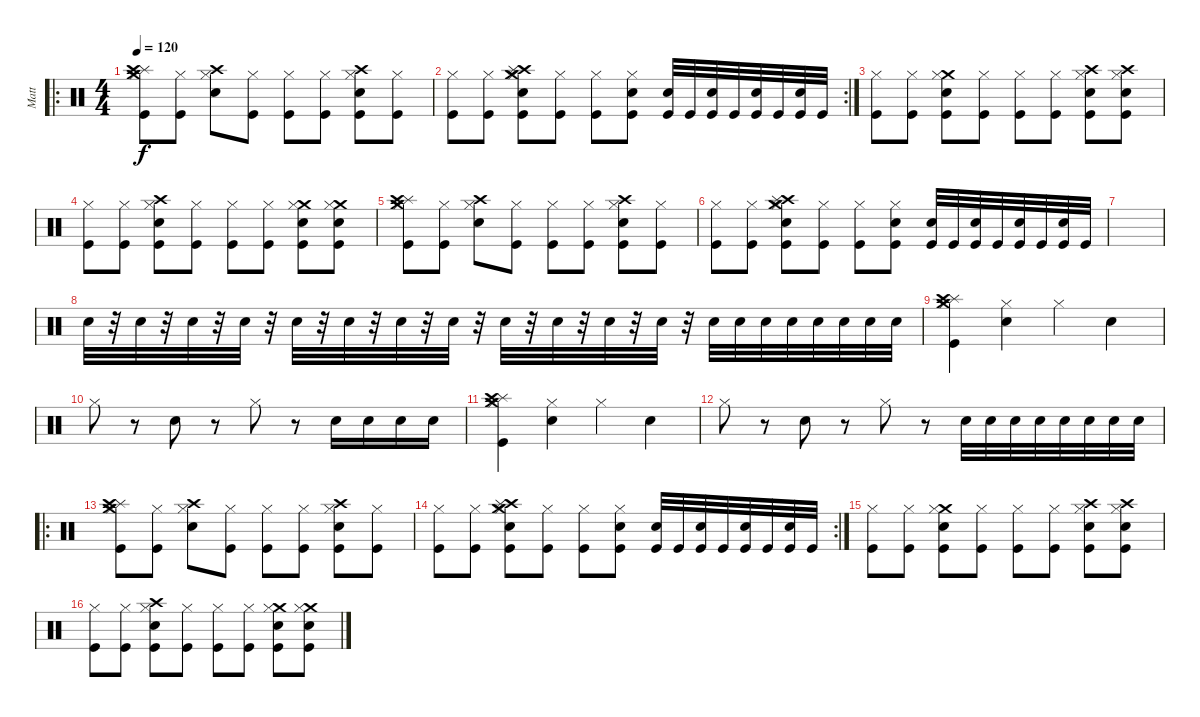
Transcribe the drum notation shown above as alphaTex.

\track ("Matt" "Matt") {instrument percussion}
\staff {score}
\articulation defaults
\ro
\ts (4 4)
\tempo 120
\clef neutral
\ks c
("Crash medium (hit)" "Splash (hit)" "Crash high (hit)" "Kick (hit)" "Hi-Hat (closed)").8{dy f} ("Hi-Hat (closed)" "Kick (hit)").8 ("Crash high (hit)" "Hi-Hat (closed)" "Electric Snare (hit)").8 ("Hi-Hat (closed)" "Kick (hit)").8 ("Hi-Hat (closed)" "Kick (hit)").8 ("Hi-Hat (closed)" "Kick (hit)").8 ("Crash high (hit)" "Electric Snare (hit)" "Hi-Hat (closed)" "Kick (hit)").8 ("Hi-Hat (closed)" "Kick (hit)").8 |
\rc 2
("Hi-Hat (closed)" "Kick (hit)").8 ("Hi-Hat (closed)" "Kick (hit)").8 ("Crash high (hit)" "Crash medium (hit)" "Hi-Hat (closed)" "Kick (hit)" "Electric Snare (hit)" "Splash (hit)").8 ("Hi-Hat (closed)" "Kick (hit)").8 ("Kick (hit)" "Hi-Hat (closed)").8 ("Electric Snare (hit)" "Hi-Hat (closed)" "Kick (hit)").8 ("Electric Snare (hit)" "Kick (hit)").32 "Kick (hit)".32 ("Electric Snare (hit)" "Kick (hit)").32 "Kick (hit)".32 ("Electric Snare (hit)" "Kick (hit)").32 "Kick (hit)".32 ("Electric Snare (hit)" "Kick (hit)").32 "Kick (hit)".32 |
("Hi-Hat (closed)" "Kick (hit)").8 ("Hi-Hat (closed)" "Kick (hit)").8 ("Crash medium (hit)" "Electric Snare (hit)" "Hi-Hat (closed)" "Kick (hit)").8 ("Hi-Hat (closed)" "Kick (hit)").8 ("Hi-Hat (closed)" "Kick (hit)").8 ("Hi-Hat (closed)" "Kick (hit)").8 ("Crash high (hit)" "Electric Snare (hit)" "Hi-Hat (closed)" "Kick (hit)").8 ("Crash high (hit)" "Electric Snare (hit)" "Hi-Hat (closed)" "Kick (hit)").8 |
("Hi-Hat (closed)" "Kick (hit)").8 ("Hi-Hat (closed)" "Kick (hit)").8 ("Crash high (hit)" "Electric Snare (hit)" "Hi-Hat (closed)" "Kick (hit)").8 ("Hi-Hat (closed)" "Kick (hit)").8 ("Hi-Hat (closed)" "Kick (hit)").8 ("Hi-Hat (closed)" "Kick (hit)").8 ("Crash medium (hit)" "Electric Snare (hit)" "Hi-Hat (closed)" "Kick (hit)").8 ("Crash medium (hit)" "Electric Snare (hit)" "Hi-Hat (closed)" "Kick (hit)").8 |
("Crash medium (hit)" "Splash (hit)" "Crash high (hit)" "Kick (hit)" "Hi-Hat (closed)").8 ("Hi-Hat (closed)" "Kick (hit)").8 ("Crash high (hit)" "Hi-Hat (closed)" "Electric Snare (hit)").8 ("Hi-Hat (closed)" "Kick (hit)").8 ("Hi-Hat (closed)" "Kick (hit)").8 ("Hi-Hat (closed)" "Kick (hit)").8 ("Crash high (hit)" "Electric Snare (hit)" "Hi-Hat (closed)" "Kick (hit)").8 ("Hi-Hat (closed)" "Kick (hit)").8 |
("Hi-Hat (closed)" "Kick (hit)").8 ("Hi-Hat (closed)" "Kick (hit)").8 ("Crash high (hit)" "Crash medium (hit)" "Hi-Hat (closed)" "Kick (hit)" "Electric Snare (hit)" "Splash (hit)").8 ("Hi-Hat (closed)" "Kick (hit)").8 ("Kick (hit)" "Hi-Hat (closed)").8 ("Electric Snare (hit)" "Hi-Hat (closed)" "Kick (hit)").8 ("Electric Snare (hit)" "Kick (hit)").32 "Kick (hit)".32 ("Electric Snare (hit)" "Kick (hit)").32 "Kick (hit)".32 ("Electric Snare (hit)" "Kick (hit)").32 "Kick (hit)".32 ("Electric Snare (hit)" "Kick (hit)").32 "Kick (hit)".32 |
|
"Electric Snare (hit)".32 r.32 "Electric Snare (hit)".32 r.32 "Electric Snare (hit)".32 r.32 "Electric Snare (hit)".32 r.32 "Electric Snare (hit)".32 r.32 "Electric Snare (hit)".32 r.32 "Electric Snare (hit)".32 r.32 "Electric Snare (hit)".32 r.32 "Electric Snare (hit)".32 r.32 "Electric Snare (hit)".32 r.32 "Electric Snare (hit)".32 r.32 "Electric Snare (hit)".32 r.32 "Electric Snare (hit)".32 "Electric Snare (hit)".32 "Electric Snare (hit)".32 "Electric Snare (hit)".32 "Electric Snare (hit)".32 "Electric Snare (hit)".32 "Electric Snare (hit)".32 "Electric Snare (hit)".32 |
("Splash (hit)" "Crash medium (hit)" "Crash high (hit)" "Kick (hit)" "Hi-Hat (closed)").4 ("Electric Snare (hit)" "Hi-Hat (closed)").4 "Hi-Hat (closed)".4 "Electric Snare (hit)".4 |
"Hi-Hat (closed)".8 r.8 "Electric Snare (hit)".8 r.8 "Hi-Hat (closed)".8 r.8 "Electric Snare (hit)".16 "Electric Snare (hit)".16 "Electric Snare (hit)".16 "Electric Snare (hit)".16 |
("Splash (hit)" "Crash medium (hit)" "Crash high (hit)" "Kick (hit)" "Hi-Hat (closed)").4 ("Electric Snare (hit)" "Hi-Hat (closed)").4 "Hi-Hat (closed)".4 "Electric Snare (hit)".4 |
"Hi-Hat (closed)".8 r.8 "Electric Snare (hit)".8 r.8 "Hi-Hat (closed)".8 r.8 "Electric Snare (hit)".32 "Electric Snare (hit)".32 "Electric Snare (hit)".32 "Electric Snare (hit)".32 "Electric Snare (hit)".32 "Electric Snare (hit)".32 "Electric Snare (hit)".32 "Electric Snare (hit)".32 |
\ro
("Crash medium (hit)" "Splash (hit)" "Crash high (hit)" "Kick (hit)" "Hi-Hat (closed)").8 ("Hi-Hat (closed)" "Kick (hit)").8 ("Crash high (hit)" "Hi-Hat (closed)" "Electric Snare (hit)").8 ("Hi-Hat (closed)" "Kick (hit)").8 ("Hi-Hat (closed)" "Kick (hit)").8 ("Hi-Hat (closed)" "Kick (hit)").8 ("Crash high (hit)" "Electric Snare (hit)" "Hi-Hat (closed)" "Kick (hit)").8 ("Hi-Hat (closed)" "Kick (hit)").8 |
\rc 2
("Hi-Hat (closed)" "Kick (hit)").8 ("Hi-Hat (closed)" "Kick (hit)").8 ("Crash high (hit)" "Crash medium (hit)" "Hi-Hat (closed)" "Kick (hit)" "Electric Snare (hit)" "Splash (hit)").8 ("Hi-Hat (closed)" "Kick (hit)").8 ("Kick (hit)" "Hi-Hat (closed)").8 ("Electric Snare (hit)" "Hi-Hat (closed)" "Kick (hit)").8 ("Electric Snare (hit)" "Kick (hit)").32 "Kick (hit)".32 ("Electric Snare (hit)" "Kick (hit)").32 "Kick (hit)".32 ("Electric Snare (hit)" "Kick (hit)").32 "Kick (hit)".32 ("Electric Snare (hit)" "Kick (hit)").32 "Kick (hit)".32 |
("Hi-Hat (closed)" "Kick (hit)").8 ("Hi-Hat (closed)" "Kick (hit)").8 ("Crash medium (hit)" "Electric Snare (hit)" "Hi-Hat (closed)" "Kick (hit)").8 ("Hi-Hat (closed)" "Kick (hit)").8 ("Hi-Hat (closed)" "Kick (hit)").8 ("Hi-Hat (closed)" "Kick (hit)").8 ("Crash high (hit)" "Electric Snare (hit)" "Hi-Hat (closed)" "Kick (hit)").8 ("Crash high (hit)" "Electric Snare (hit)" "Hi-Hat (closed)" "Kick (hit)").8 |
("Hi-Hat (closed)" "Kick (hit)").8 ("Hi-Hat (closed)" "Kick (hit)").8 ("Crash high (hit)" "Electric Snare (hit)" "Hi-Hat (closed)" "Kick (hit)").8 ("Hi-Hat (closed)" "Kick (hit)").8 ("Hi-Hat (closed)" "Kick (hit)").8 ("Hi-Hat (closed)" "Kick (hit)").8 ("Crash medium (hit)" "Electric Snare (hit)" "Hi-Hat (closed)" "Kick (hit)").8 ("Crash medium (hit)" "Electric Snare (hit)" "Hi-Hat (closed)" "Kick (hit)").8
